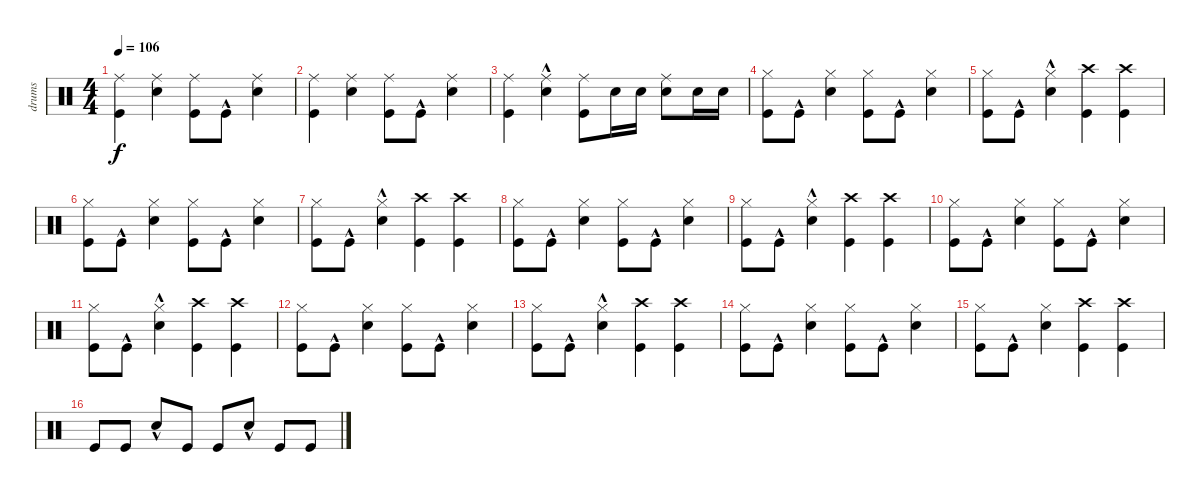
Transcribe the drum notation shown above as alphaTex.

\track ("drums" "drums") {instrument percussion}
\staff {score}
\articulation defaults
\ts (4 4)
\tempo 106
\clef neutral
\ks c
("Kick (hit)" "Ride (middle)").4{dy f} ("Snare (hit) 2" "Ride (middle)").4 ("Kick (hit)" "Ride (middle)").8 "Kick (hit)"{hac}.8 ("Snare (hit) 2" "Ride (middle)").4 |
("Kick (hit)" "Ride (middle)").4 ("Snare (hit) 2" "Ride (middle)").4 ("Kick (hit)" "Ride (middle)").8 "Kick (hit)"{hac}.8 ("Snare (hit) 2" "Ride (middle)").4 |
("Kick (hit)" "Ride (middle)").4 ("Snare (hit) 2"{hac} "Ride (middle)").4 ("Kick (hit)" "Ride (middle)").8 "Snare (hit) 2".16 "Snare (hit) 2".16 ("Snare (hit) 2" "Ride (middle)").8 "Snare (hit) 2".16 "Snare (hit) 2".16 |
("Kick (hit)" "Hi-Hat (closed)").8 "Kick (hit)"{hac}.8 ("Snare (hit) 2" "Hi-Hat (closed)").4 ("Kick (hit)" "Hi-Hat (closed)").8 "Kick (hit)"{hac}.8 ("Snare (hit) 2" "Hi-Hat (closed)").4 |
("Kick (hit)" "Hi-Hat (closed)").8 "Kick (hit)"{hac}.8 ("Snare (hit) 2" "Hi-Hat (closed)"{hac}).4 ("Kick (hit)" "Crash high (hit)").4 ("Kick (hit)" "Crash high (hit)").4 |
("Kick (hit)" "Hi-Hat (closed)").8 "Kick (hit)"{hac}.8 ("Snare (hit) 2" "Hi-Hat (closed)").4 ("Kick (hit)" "Hi-Hat (closed)").8 "Kick (hit)"{hac}.8 ("Snare (hit) 2" "Hi-Hat (closed)").4 |
("Kick (hit)" "Hi-Hat (closed)").8 "Kick (hit)"{hac}.8 ("Snare (hit) 2" "Hi-Hat (closed)"{hac}).4 ("Kick (hit)" "Crash high (hit)").4 ("Kick (hit)" "Crash high (hit)").4 |
("Kick (hit)" "Hi-Hat (closed)").8 "Kick (hit)"{hac}.8 ("Snare (hit) 2" "Hi-Hat (closed)").4 ("Kick (hit)" "Hi-Hat (closed)").8 "Kick (hit)"{hac}.8 ("Snare (hit) 2" "Hi-Hat (closed)").4 |
("Kick (hit)" "Hi-Hat (closed)").8 "Kick (hit)"{hac}.8 ("Snare (hit) 2" "Hi-Hat (closed)"{hac}).4 ("Kick (hit)" "Crash high (hit)").4 ("Kick (hit)" "Crash high (hit)").4 |
("Kick (hit)" "Hi-Hat (closed)").8 "Kick (hit)"{hac}.8 ("Snare (hit) 2" "Hi-Hat (closed)").4 ("Kick (hit)" "Hi-Hat (closed)").8 "Kick (hit)"{hac}.8 ("Snare (hit) 2" "Hi-Hat (closed)").4 |
("Kick (hit)" "Hi-Hat (closed)").8 "Kick (hit)"{hac}.8 ("Snare (hit) 2" "Hi-Hat (closed)"{hac}).4 ("Kick (hit)" "Crash high (hit)").4 ("Kick (hit)" "Crash high (hit)").4 |
("Kick (hit)" "Hi-Hat (closed)").8 "Kick (hit)"{hac}.8 ("Snare (hit) 2" "Hi-Hat (closed)").4 ("Kick (hit)" "Hi-Hat (closed)").8 "Kick (hit)"{hac}.8 ("Snare (hit) 2" "Hi-Hat (closed)").4 |
("Kick (hit)" "Hi-Hat (closed)").8 "Kick (hit)"{hac}.8 ("Snare (hit) 2" "Hi-Hat (closed)"{hac}).4 ("Kick (hit)" "Crash high (hit)").4 ("Kick (hit)" "Crash high (hit)").4 |
("Kick (hit)" "Hi-Hat (closed)").8 "Kick (hit)"{hac}.8 ("Snare (hit) 2" "Hi-Hat (closed)").4 ("Kick (hit)" "Hi-Hat (closed)").8 "Kick (hit)"{hac}.8 ("Snare (hit) 2" "Hi-Hat (closed)").4 |
("Kick (hit)" "Hi-Hat (closed)").8 "Kick (hit)"{hac}.8 ("Snare (hit) 2" "Hi-Hat (closed)").4 ("Kick (hit)" "Crash high (hit)").4 ("Kick (hit)" "Crash high (hit)").4 |
"Kick (hit)".8 "Kick (hit)".8 "Snare (hit) 2"{hac}.8 "Kick (hit)".8 "Kick (hit)".8 "Snare (hit) 2"{hac}.8 "Kick (hit)".8 "Kick (hit)".8
